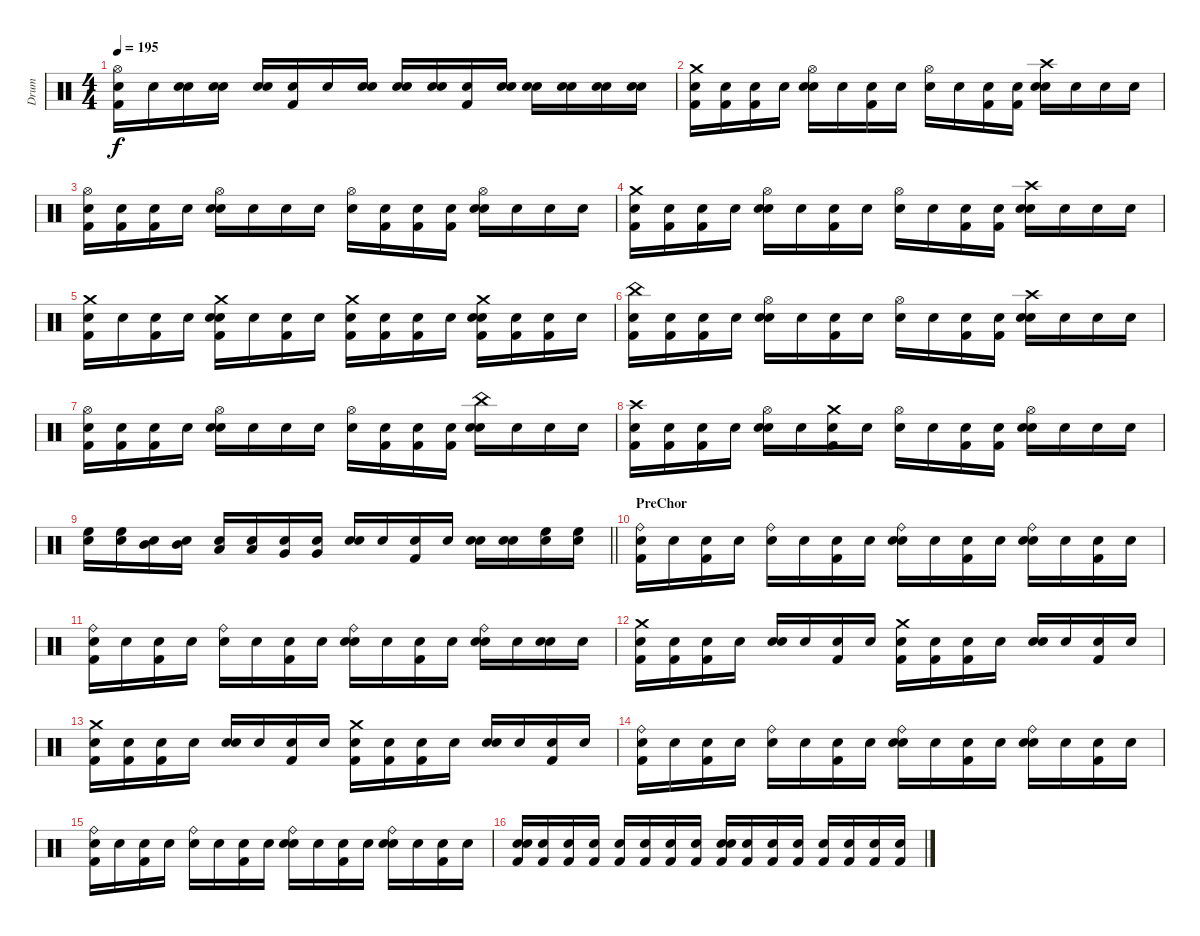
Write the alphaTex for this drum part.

\track ("Drum" "Drum") {instrument percussion}
\staff {score}
\articulation defaults
\ts (4 4)
\tempo 195
\clef neutral
\ks c
("Hi-Hat (open)" "Snare (hit)" "Kick (hit) 2").16{dy f} "Snare (hit)".16 ("Snare (hit)" "Snare (hit) 2").16 ("Snare (hit)" "Snare (hit) 2").16 ("Snare (hit)" "Snare (hit) 2").16 ("Snare (hit)" "Kick (hit) 2").16 "Snare (hit)".16 ("Snare (hit)" "Snare (hit) 2").16 ("Snare (hit)" "Snare (hit) 2").16 ("Snare (hit)" "Snare (hit) 2").16 ("Snare (hit)" "Kick (hit) 2").16 ("Snare (hit)" "Snare (hit) 2").16 ("Snare (hit)" "Snare (hit) 2").16 ("Snare (hit)" "Snare (hit) 2").16 ("Snare (hit)" "Snare (hit) 2").16 ("Snare (hit)" "Snare (hit) 2").16 |
("Crash medium (hit)" "Snare (hit)" "Kick (hit) 2").16 ("Snare (hit)" "Kick (hit) 2").16 ("Snare (hit)" "Kick (hit) 2").16 "Snare (hit)".16 ("Hi-Hat (open)" "Snare (hit) 2" "Snare (hit)").16 "Snare (hit)".16 ("Snare (hit)" "Kick (hit) 2").16 "Snare (hit)".16 ("Hi-Hat (open)" "Snare (hit)").16 "Snare (hit)".16 ("Snare (hit)" "Kick (hit) 2").16 ("Snare (hit)" "Kick (hit) 2").16 ("Crash high (hit)" "Snare (hit) 2" "Snare (hit)").16 "Snare (hit)".16 "Snare (hit)".16 "Snare (hit)".16 |
("Hi-Hat (open)" "Snare (hit)" "Kick (hit) 2").16 ("Snare (hit)" "Kick (hit) 2").16 ("Snare (hit)" "Kick (hit) 2").16 "Snare (hit)".16 ("Hi-Hat (open)" "Snare (hit) 2" "Snare (hit)").16 "Snare (hit)".16 "Snare (hit)".16 "Snare (hit)".16 ("Hi-Hat (open)" "Snare (hit)").16 ("Snare (hit)" "Kick (hit) 2").16 ("Snare (hit)" "Kick (hit) 2").16 ("Snare (hit)" "Kick (hit) 2").16 ("Hi-Hat (open)" "Snare (hit) 2" "Snare (hit)").16 "Snare (hit)".16 "Snare (hit)".16 "Snare (hit)".16 |
("Crash medium (hit)" "Snare (hit)" "Kick (hit) 2").16 ("Snare (hit)" "Kick (hit) 2").16 ("Snare (hit)" "Kick (hit) 2").16 "Snare (hit)".16 ("Hi-Hat (open)" "Snare (hit) 2" "Snare (hit)").16 "Snare (hit)".16 ("Snare (hit)" "Kick (hit) 2").16 "Snare (hit)".16 ("Hi-Hat (open)" "Snare (hit)").16 "Snare (hit)".16 ("Snare (hit)" "Kick (hit) 2").16 ("Snare (hit)" "Kick (hit) 2").16 ("Crash high (hit)" "Snare (hit) 2" "Snare (hit)").16 "Snare (hit)".16 "Snare (hit)".16 "Snare (hit)".16 |
("Crash medium (hit)" "Snare (hit)" "Kick (hit) 2").16 "Snare (hit)".16 ("Snare (hit)" "Kick (hit) 2").16 "Snare (hit)".16 ("Crash medium (hit)" "Snare (hit) 2" "Snare (hit)" "Kick (hit) 2").16 "Snare (hit)".16 ("Snare (hit)" "Kick (hit) 2").16 "Snare (hit)".16 ("Crash medium (hit)" "Snare (hit)" "Kick (hit) 2").16 ("Snare (hit)" "Kick (hit) 2").16 ("Snare (hit)" "Kick (hit) 2").16 "Snare (hit)".16 ("Crash medium (hit)" "Snare (hit) 2" "Snare (hit)" "Kick (hit) 2").16 ("Snare (hit)" "Kick (hit) 2").16 ("Snare (hit)" "Kick (hit) 2").16 "Snare (hit)".16 |
("China (hit)" "Snare (hit)" "Kick (hit) 2").16 ("Snare (hit)" "Kick (hit) 2").16 ("Snare (hit)" "Kick (hit) 2").16 "Snare (hit)".16 ("Hi-Hat (open)" "Snare (hit) 2" "Snare (hit)").16 "Snare (hit)".16 ("Snare (hit)" "Kick (hit) 2").16 "Snare (hit)".16 ("Hi-Hat (open)" "Snare (hit)").16 "Snare (hit)".16 ("Snare (hit)" "Kick (hit) 2").16 ("Snare (hit)" "Kick (hit) 2").16 ("Crash high (hit)" "Snare (hit) 2" "Snare (hit)").16 "Snare (hit)".16 "Snare (hit)".16 "Snare (hit)".16 |
("Hi-Hat (open)" "Snare (hit)" "Kick (hit) 2").16 ("Snare (hit)" "Kick (hit) 2").16 ("Snare (hit)" "Kick (hit) 2").16 "Snare (hit)".16 ("Hi-Hat (open)" "Snare (hit) 2" "Snare (hit)").16 "Snare (hit)".16 "Snare (hit)".16 "Snare (hit)".16 ("Hi-Hat (open)" "Snare (hit)").16 ("Snare (hit)" "Kick (hit) 2").16 ("Snare (hit)" "Kick (hit) 2").16 ("Snare (hit)" "Kick (hit) 2").16 ("China (hit)" "Snare (hit) 2" "Snare (hit)").16 "Snare (hit)".16 "Snare (hit)".16 "Snare (hit)".16 |
("Crash high (hit)" "Snare (hit)" "Kick (hit) 2").16 ("Snare (hit)" "Kick (hit) 2").16 ("Snare (hit)" "Kick (hit) 2").16 "Snare (hit)".16 ("Hi-Hat (open)" "Snare (hit) 2" "Snare (hit)").16 "Snare (hit)".16 ("Crash medium (hit)" "Snare (hit)" "Kick (hit) 2").16 "Snare (hit)".16 ("Hi-Hat (open)" "Snare (hit)").16 "Snare (hit)".16 ("Snare (hit)" "Kick (hit) 2").16 ("Snare (hit)" "Kick (hit) 2").16 ("Hi-Hat (open)" "Snare (hit) 2" "Snare (hit)").16 "Snare (hit)".16 "Snare (hit)".16 "Snare (hit)".16 |
\barLineRight lightlight
("High Floor Tom (hit)" "Snare (hit)").16 ("High Floor Tom (hit)" "Snare (hit)").16 ("Mid Tom (hit)" "Snare (hit)").16 ("Mid Tom (hit)" "Snare (hit)").16 ("Low Tom (hit)" "Snare (hit)").16 ("Low Tom (hit)" "Snare (hit)").16 ("Very Low Tom (hit)" "Snare (hit)").16 ("Very Low Tom (hit)" "Snare (hit)").16 ("Snare (hit) 2" "Snare (hit)").16 "Snare (hit)".16 ("Kick (hit) 2" "Snare (hit)").16 "Snare (hit)".16 ("Snare (hit) 2" "Snare (hit)").16 ("Snare (hit) 2" "Snare (hit)").16 ("High Floor Tom (hit)" "Snare (hit)").16 ("High Floor Tom (hit)" "Snare (hit)").16 |
\section ("" "PreChor")
("Ride (bell)" "Snare (hit)" "Kick (hit) 2").16 "Snare (hit)".16 ("Snare (hit)" "Kick (hit) 2").16 "Snare (hit)".16 ("Ride (bell)" "Snare (hit)").16 "Snare (hit)".16 ("Snare (hit)" "Kick (hit) 2").16 "Snare (hit)".16 ("Ride (bell)" "Snare (hit)" "Snare (hit) 2").16 "Snare (hit)".16 ("Snare (hit)" "Kick (hit) 2").16 "Snare (hit)".16 ("Ride (bell)" "Snare (hit)" "Snare (hit) 2").16 "Snare (hit)".16 ("Snare (hit)" "Kick (hit) 2").16 "Snare (hit)".16 |
("Ride (bell)" "Snare (hit)" "Kick (hit) 2").16 "Snare (hit)".16 ("Snare (hit)" "Kick (hit) 2").16 "Snare (hit)".16 ("Ride (bell)" "Snare (hit)").16 "Snare (hit)".16 ("Snare (hit)" "Kick (hit) 2").16 "Snare (hit)".16 ("Ride (bell)" "Snare (hit)" "Snare (hit) 2").16 "Snare (hit)".16 ("Snare (hit)" "Kick (hit) 2").16 "Snare (hit)".16 ("Ride (bell)" "Snare (hit)" "Snare (hit) 2").16 "Snare (hit)".16 ("Snare (hit)" "Snare (hit) 2").16 "Snare (hit)".16 |
("Crash medium (hit)" "Snare (hit)" "Kick (hit) 2").16 ("Snare (hit)" "Kick (hit) 2").16 ("Snare (hit)" "Kick (hit) 2").16 "Snare (hit)".16 ("Snare (hit)" "Snare (hit) 2").16 "Snare (hit)".16 ("Snare (hit)" "Kick (hit) 2").16 "Snare (hit)".16 ("Crash medium (hit)" "Snare (hit)" "Kick (hit) 2").16 ("Snare (hit)" "Kick (hit) 2").16 ("Snare (hit)" "Kick (hit) 2").16 "Snare (hit)".16 ("Snare (hit)" "Snare (hit) 2").16 "Snare (hit)".16 ("Snare (hit)" "Kick (hit) 2").16 "Snare (hit)".16 |
("Crash medium (hit)" "Snare (hit)" "Kick (hit) 2").16 ("Snare (hit)" "Kick (hit) 2").16 ("Snare (hit)" "Kick (hit) 2").16 "Snare (hit)".16 ("Snare (hit)" "Snare (hit) 2").16 "Snare (hit)".16 ("Snare (hit)" "Kick (hit) 2").16 "Snare (hit)".16 ("Crash medium (hit)" "Snare (hit)" "Kick (hit) 2").16 ("Snare (hit)" "Kick (hit) 2").16 ("Snare (hit)" "Kick (hit) 2").16 "Snare (hit)".16 ("Snare (hit)" "Snare (hit) 2").16 "Snare (hit)".16 ("Snare (hit)" "Kick (hit) 2").16 "Snare (hit)".16 |
("Ride (bell)" "Snare (hit)" "Kick (hit) 2").16 "Snare (hit)".16 ("Snare (hit)" "Kick (hit) 2").16 "Snare (hit)".16 ("Ride (bell)" "Snare (hit)").16 "Snare (hit)".16 ("Snare (hit)" "Kick (hit) 2").16 "Snare (hit)".16 ("Ride (bell)" "Snare (hit)" "Snare (hit) 2").16 "Snare (hit)".16 ("Snare (hit)" "Kick (hit) 2").16 "Snare (hit)".16 ("Ride (bell)" "Snare (hit)" "Snare (hit) 2").16 "Snare (hit)".16 ("Snare (hit)" "Kick (hit) 2").16 "Snare (hit)".16 |
("Ride (bell)" "Snare (hit)" "Kick (hit) 2").16 "Snare (hit)".16 ("Snare (hit)" "Kick (hit) 2").16 "Snare (hit)".16 ("Ride (bell)" "Snare (hit)").16 "Snare (hit)".16 ("Snare (hit)" "Kick (hit) 2").16 "Snare (hit)".16 ("Ride (bell)" "Snare (hit)" "Snare (hit) 2").16 "Snare (hit)".16 ("Snare (hit)" "Kick (hit) 2").16 "Snare (hit)".16 ("Ride (bell)" "Snare (hit)" "Snare (hit) 2").16 "Snare (hit)".16 ("Snare (hit)" "Kick (hit) 2").16 "Snare (hit)".16 |
("Snare (hit) 2" "Snare (hit)" "Kick (hit) 2").16 ("Snare (hit)" "Kick (hit) 2").16 ("Snare (hit)" "Kick (hit) 2").16 ("Snare (hit)" "Kick (hit) 2").16 ("Snare (hit)" "Kick (hit) 2").16 ("Snare (hit)" "Kick (hit) 2").16 ("Snare (hit)" "Kick (hit) 2").16 ("Snare (hit)" "Kick (hit) 2").16 ("Snare (hit) 2" "Snare (hit)" "Kick (hit) 2").16 ("Snare (hit)" "Kick (hit) 2").16 ("Snare (hit)" "Kick (hit) 2").16 ("Snare (hit)" "Kick (hit) 2").16 ("Snare (hit)" "Kick (hit) 2").16 ("Snare (hit)" "Kick (hit) 2").16 ("Snare (hit)" "Kick (hit) 2").16 ("Snare (hit)" "Kick (hit) 2").16
